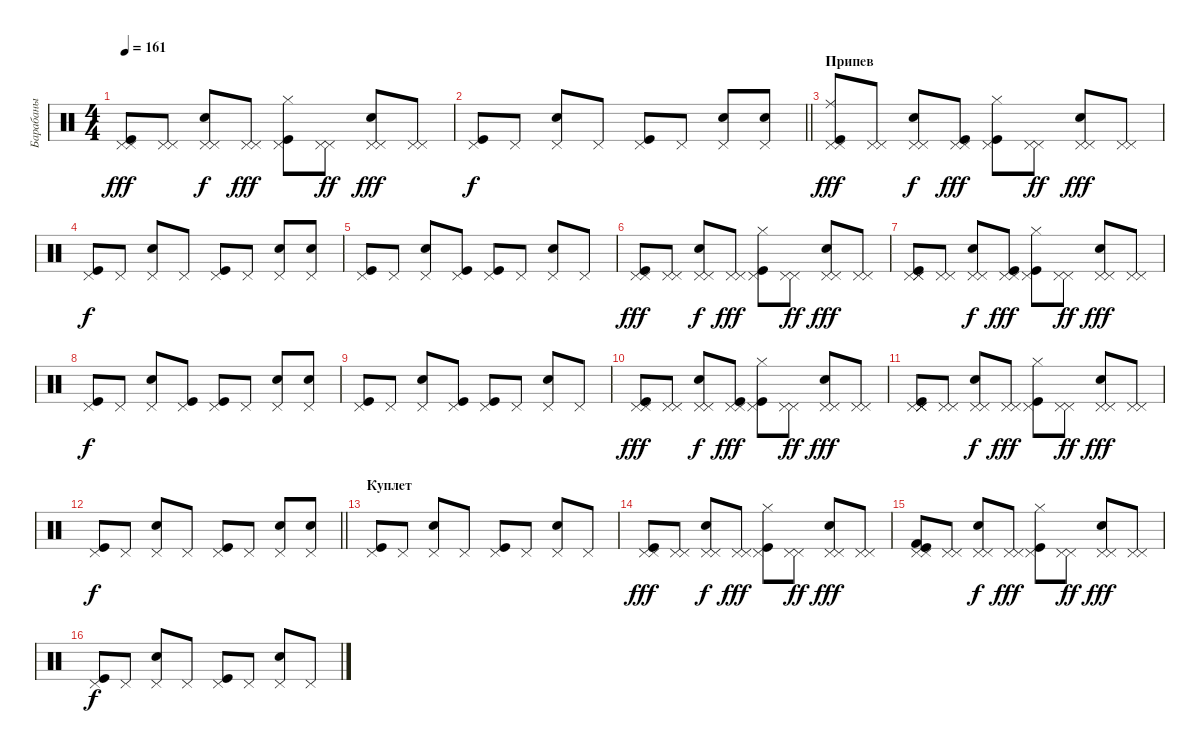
\track ("Барабаны" "Барабаны") {instrument percussion}
\staff {score}
\articulation defaults
\ts (4 4)
\tempo 161
\clef neutral
\ks c
("Pedal Hi-Hat (hit)" "Kick (hit)" "Pedal Hi-Hat (hit)").8{dy fff} ("Pedal Hi-Hat (hit)" "Pedal Hi-Hat (hit)").8 ("Snare (hit) 2" "Pedal Hi-Hat (hit)" "Pedal Hi-Hat (hit)").8{dy f} ("Pedal Hi-Hat (hit)" "Pedal Hi-Hat (hit)").8{dy fff} ("Kick (hit)" "Pedal Hi-Hat (hit)" "Hi-Hat (closed)").8 ("Pedal Hi-Hat (hit)" "Pedal Hi-Hat (hit)").8{dy ff} ("Snare (hit) 2" "Pedal Hi-Hat (hit)" "Pedal Hi-Hat (hit)").8{dy fff} ("Pedal Hi-Hat (hit)" "Pedal Hi-Hat (hit)").8 |
\barLineRight lightlight
("Kick (hit)" "Pedal Hi-Hat (hit)").8{dy f} "Pedal Hi-Hat (hit)".8 ("Snare (hit) 2" "Pedal Hi-Hat (hit)").8 "Pedal Hi-Hat (hit)".8 ("Kick (hit)" "Pedal Hi-Hat (hit)").8 "Pedal Hi-Hat (hit)".8 ("Snare (hit) 2" "Pedal Hi-Hat (hit)").8 ("Snare (hit) 2" "Pedal Hi-Hat (hit)").8 |
\section ("" "Припев")
("Ride (middle)" "Pedal Hi-Hat (hit)" "Kick (hit)" "Pedal Hi-Hat (hit)").8{dy fff} ("Pedal Hi-Hat (hit)" "Pedal Hi-Hat (hit)").8 ("Snare (hit) 2" "Pedal Hi-Hat (hit)" "Pedal Hi-Hat (hit)").8{dy f} ("Kick (hit)" "Pedal Hi-Hat (hit)" "Pedal Hi-Hat (hit)").8{dy fff} ("Kick (hit)" "Pedal Hi-Hat (hit)" "Hi-Hat (closed)").8 ("Pedal Hi-Hat (hit)" "Pedal Hi-Hat (hit)").8{dy ff} ("Snare (hit) 2" "Pedal Hi-Hat (hit)" "Pedal Hi-Hat (hit)").8{dy fff} ("Pedal Hi-Hat (hit)" "Pedal Hi-Hat (hit)").8 |
("Pedal Hi-Hat (hit)" "Kick (hit)").8{dy f} "Pedal Hi-Hat (hit)".8 ("Snare (hit) 2" "Pedal Hi-Hat (hit)").8 "Pedal Hi-Hat (hit)".8 ("Kick (hit)" "Pedal Hi-Hat (hit)").8 "Pedal Hi-Hat (hit)".8 ("Snare (hit) 2" "Pedal Hi-Hat (hit)").8 ("Snare (hit) 2" "Pedal Hi-Hat (hit)").8 |
("Kick (hit)" "Pedal Hi-Hat (hit)").8 "Pedal Hi-Hat (hit)".8 ("Snare (hit) 2" "Pedal Hi-Hat (hit)").8 ("Kick (hit)" "Pedal Hi-Hat (hit)").8 ("Kick (hit)" "Pedal Hi-Hat (hit)").8 "Pedal Hi-Hat (hit)".8 ("Snare (hit) 2" "Pedal Hi-Hat (hit)").8 "Pedal Hi-Hat (hit)".8 |
("Pedal Hi-Hat (hit)" "Kick (hit)" "Pedal Hi-Hat (hit)").8{dy fff} ("Pedal Hi-Hat (hit)" "Pedal Hi-Hat (hit)").8 ("Snare (hit) 2" "Pedal Hi-Hat (hit)" "Pedal Hi-Hat (hit)").8{dy f} ("Pedal Hi-Hat (hit)" "Pedal Hi-Hat (hit)").8{dy fff} ("Kick (hit)" "Hi-Hat (closed)" "Pedal Hi-Hat (hit)").8 ("Pedal Hi-Hat (hit)" "Pedal Hi-Hat (hit)").8{dy ff} ("Snare (hit) 2" "Pedal Hi-Hat (hit)" "Pedal Hi-Hat (hit)").8{dy fff} ("Pedal Hi-Hat (hit)" "Pedal Hi-Hat (hit)").8 |
("Pedal Hi-Hat (hit)" "Kick (hit)" "Pedal Hi-Hat (hit)" "Pedal Hi-Hat (hit)").8 ("Pedal Hi-Hat (hit)" "Pedal Hi-Hat (hit)").8 ("Snare (hit) 2" "Pedal Hi-Hat (hit)" "Pedal Hi-Hat (hit)").8{dy f} ("Kick (hit)" "Pedal Hi-Hat (hit)" "Pedal Hi-Hat (hit)").8{dy fff} ("Kick (hit)" "Pedal Hi-Hat (hit)" "Hi-Hat (closed)").8 ("Pedal Hi-Hat (hit)" "Pedal Hi-Hat (hit)").8{dy ff} ("Snare (hit) 2" "Pedal Hi-Hat (hit)" "Pedal Hi-Hat (hit)").8{dy fff} ("Pedal Hi-Hat (hit)" "Pedal Hi-Hat (hit)").8 |
("Kick (hit)" "Pedal Hi-Hat (hit)").8{dy f} "Pedal Hi-Hat (hit)".8 ("Snare (hit) 2" "Pedal Hi-Hat (hit)").8 ("Kick (hit)" "Pedal Hi-Hat (hit)").8 ("Kick (hit)" "Pedal Hi-Hat (hit)").8 "Pedal Hi-Hat (hit)".8 ("Snare (hit) 2" "Pedal Hi-Hat (hit)").8 ("Snare (hit) 2" "Pedal Hi-Hat (hit)").8 |
("Kick (hit)" "Pedal Hi-Hat (hit)").8 "Pedal Hi-Hat (hit)".8 ("Snare (hit) 2" "Pedal Hi-Hat (hit)").8 ("Kick (hit)" "Pedal Hi-Hat (hit)").8 ("Kick (hit)" "Pedal Hi-Hat (hit)").8 "Pedal Hi-Hat (hit)".8 ("Snare (hit) 2" "Pedal Hi-Hat (hit)").8 "Pedal Hi-Hat (hit)".8 |
("Pedal Hi-Hat (hit)" "Kick (hit)" "Pedal Hi-Hat (hit)").8{dy fff} ("Pedal Hi-Hat (hit)" "Pedal Hi-Hat (hit)").8 ("Snare (hit) 2" "Pedal Hi-Hat (hit)" "Pedal Hi-Hat (hit)").8{dy f} ("Kick (hit)" "Pedal Hi-Hat (hit)" "Pedal Hi-Hat (hit)").8{dy fff} ("Kick (hit)" "Hi-Hat (closed)" "Pedal Hi-Hat (hit)").8 ("Pedal Hi-Hat (hit)" "Pedal Hi-Hat (hit)").8{dy ff} ("Snare (hit) 2" "Pedal Hi-Hat (hit)" "Pedal Hi-Hat (hit)").8{dy fff} ("Pedal Hi-Hat (hit)" "Pedal Hi-Hat (hit)").8 |
("Pedal Hi-Hat (hit)" "Kick (hit)" "Pedal Hi-Hat (hit)" "Pedal Hi-Hat (hit)" "Pedal Hi-Hat (hit)").8 ("Pedal Hi-Hat (hit)" "Pedal Hi-Hat (hit)").8 ("Snare (hit) 2" "Pedal Hi-Hat (hit)" "Pedal Hi-Hat (hit)").8{dy f} ("Pedal Hi-Hat (hit)" "Pedal Hi-Hat (hit)").8{dy fff} ("Kick (hit)" "Pedal Hi-Hat (hit)" "Hi-Hat (closed)").8 ("Pedal Hi-Hat (hit)" "Pedal Hi-Hat (hit)").8{dy ff} ("Snare (hit) 2" "Pedal Hi-Hat (hit)" "Pedal Hi-Hat (hit)").8{dy fff} ("Pedal Hi-Hat (hit)" "Pedal Hi-Hat (hit)").8 |
\barLineRight lightlight
("Pedal Hi-Hat (hit)" "Kick (hit)").8{dy f} "Pedal Hi-Hat (hit)".8 ("Snare (hit) 2" "Pedal Hi-Hat (hit)").8 "Pedal Hi-Hat (hit)".8 ("Kick (hit)" "Pedal Hi-Hat (hit)").8 "Pedal Hi-Hat (hit)".8 ("Snare (hit) 2" "Pedal Hi-Hat (hit)").8 ("Snare (hit) 2" "Pedal Hi-Hat (hit)").8 |
\section ("" "Куплет")
("Kick (hit)" "Pedal Hi-Hat (hit)").8 "Pedal Hi-Hat (hit)".8 ("Snare (hit) 2" "Pedal Hi-Hat (hit)").8 "Pedal Hi-Hat (hit)".8 ("Kick (hit)" "Pedal Hi-Hat (hit)").8 "Pedal Hi-Hat (hit)".8 ("Snare (hit) 2" "Pedal Hi-Hat (hit)").8 "Pedal Hi-Hat (hit)".8 |
("Pedal Hi-Hat (hit)" "Kick (hit)" "Pedal Hi-Hat (hit)").8{dy fff} ("Pedal Hi-Hat (hit)" "Pedal Hi-Hat (hit)").8 ("Snare (hit) 2" "Pedal Hi-Hat (hit)" "Pedal Hi-Hat (hit)").8{dy f} ("Pedal Hi-Hat (hit)" "Pedal Hi-Hat (hit)").8{dy fff} ("Kick (hit)" "Hi-Hat (closed)" "Pedal Hi-Hat (hit)").8 ("Pedal Hi-Hat (hit)" "Pedal Hi-Hat (hit)").8{dy ff} ("Snare (hit) 2" "Pedal Hi-Hat (hit)" "Pedal Hi-Hat (hit)").8{dy fff} ("Pedal Hi-Hat (hit)" "Pedal Hi-Hat (hit)").8 |
("Kick (hit) 2" "Pedal Hi-Hat (hit)" "Pedal Hi-Hat (hit)" "Kick (hit)").8 ("Pedal Hi-Hat (hit)" "Pedal Hi-Hat (hit)").8 ("Snare (hit) 2" "Pedal Hi-Hat (hit)" "Pedal Hi-Hat (hit)").8{dy f} ("Pedal Hi-Hat (hit)" "Pedal Hi-Hat (hit)").8{dy fff} ("Kick (hit)" "Pedal Hi-Hat (hit)" "Hi-Hat (closed)").8 ("Pedal Hi-Hat (hit)" "Pedal Hi-Hat (hit)").8{dy ff} ("Snare (hit) 2" "Pedal Hi-Hat (hit)" "Pedal Hi-Hat (hit)").8{dy fff} ("Pedal Hi-Hat (hit)" "Pedal Hi-Hat (hit)").8 |
("Pedal Hi-Hat (hit)" "Kick (hit)").8{dy f} "Pedal Hi-Hat (hit)".8 ("Snare (hit) 2" "Pedal Hi-Hat (hit)").8 "Pedal Hi-Hat (hit)".8 ("Kick (hit)" "Pedal Hi-Hat (hit)").8 "Pedal Hi-Hat (hit)".8 ("Snare (hit) 2" "Pedal Hi-Hat (hit)").8 "Pedal Hi-Hat (hit)".8
